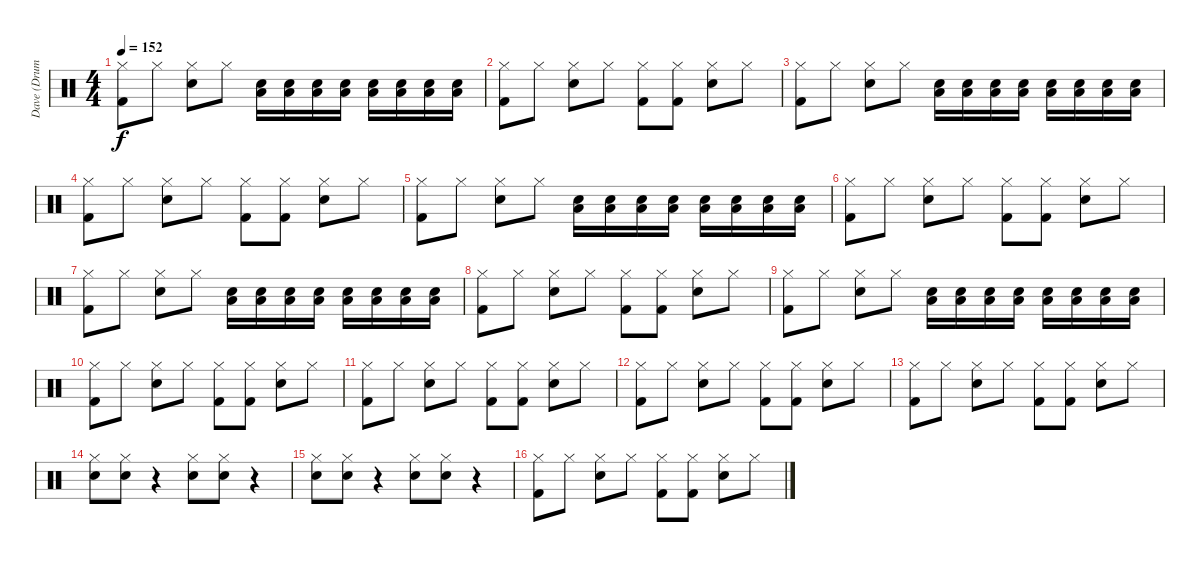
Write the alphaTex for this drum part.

\track ("Dave (Drums)" "Dave (Drum") {instrument percussion}
\staff {score}
\articulation defaults
\ts (4 4)
\tempo 152
\clef neutral
\ks c
("Hi-Hat (closed)" "Kick (hit) 2").8{dy f} "Hi-Hat (closed)".8 ("Hi-Hat (closed)" "Snare (hit) 2").8 "Hi-Hat (closed)".8 ("Low Tom (hit)" "Snare (hit) 2").16 ("Low Tom (hit)" "Snare (hit) 2").16 ("Low Tom (hit)" "Snare (hit) 2").16 ("Low Tom (hit)" "Snare (hit) 2").16 ("Low Tom (hit)" "Snare (hit) 2").16 ("Low Tom (hit)" "Snare (hit) 2").16 ("Low Tom (hit)" "Snare (hit) 2").16 ("Low Tom (hit)" "Snare (hit) 2").16 |
("Hi-Hat (closed)" "Kick (hit) 2").8 "Hi-Hat (closed)".8 ("Hi-Hat (closed)" "Snare (hit) 2").8 "Hi-Hat (closed)".8 ("Hi-Hat (closed)" "Kick (hit) 2").8 ("Hi-Hat (closed)" "Kick (hit) 2").8 ("Hi-Hat (closed)" "Snare (hit) 2").8 "Hi-Hat (closed)".8 |
("Hi-Hat (closed)" "Kick (hit) 2").8 "Hi-Hat (closed)".8 ("Hi-Hat (closed)" "Snare (hit) 2").8 "Hi-Hat (closed)".8 ("Low Tom (hit)" "Snare (hit) 2").16 ("Low Tom (hit)" "Snare (hit) 2").16 ("Low Tom (hit)" "Snare (hit) 2").16 ("Low Tom (hit)" "Snare (hit) 2").16 ("Low Tom (hit)" "Snare (hit) 2").16 ("Low Tom (hit)" "Snare (hit) 2").16 ("Low Tom (hit)" "Snare (hit) 2").16 ("Low Tom (hit)" "Snare (hit) 2").16 |
("Hi-Hat (closed)" "Kick (hit) 2").8 "Hi-Hat (closed)".8 ("Hi-Hat (closed)" "Snare (hit) 2").8 "Hi-Hat (closed)".8 ("Hi-Hat (closed)" "Kick (hit) 2").8 ("Hi-Hat (closed)" "Kick (hit) 2").8 ("Hi-Hat (closed)" "Snare (hit) 2").8 "Hi-Hat (closed)".8 |
("Hi-Hat (closed)" "Kick (hit) 2").8 "Hi-Hat (closed)".8 ("Hi-Hat (closed)" "Snare (hit) 2").8 "Hi-Hat (closed)".8 ("Low Tom (hit)" "Snare (hit) 2").16 ("Low Tom (hit)" "Snare (hit) 2").16 ("Low Tom (hit)" "Snare (hit) 2").16 ("Low Tom (hit)" "Snare (hit) 2").16 ("Low Tom (hit)" "Snare (hit) 2").16 ("Low Tom (hit)" "Snare (hit) 2").16 ("Low Tom (hit)" "Snare (hit) 2").16 ("Low Tom (hit)" "Snare (hit) 2").16 |
("Hi-Hat (closed)" "Kick (hit) 2").8 "Hi-Hat (closed)".8 ("Hi-Hat (closed)" "Snare (hit) 2").8 "Hi-Hat (closed)".8 ("Hi-Hat (closed)" "Kick (hit) 2").8 ("Hi-Hat (closed)" "Kick (hit) 2").8 ("Hi-Hat (closed)" "Snare (hit) 2").8 "Hi-Hat (closed)".8 |
("Hi-Hat (closed)" "Kick (hit) 2").8 "Hi-Hat (closed)".8 ("Hi-Hat (closed)" "Snare (hit) 2").8 "Hi-Hat (closed)".8 ("Low Tom (hit)" "Snare (hit) 2").16 ("Low Tom (hit)" "Snare (hit) 2").16 ("Low Tom (hit)" "Snare (hit) 2").16 ("Low Tom (hit)" "Snare (hit) 2").16 ("Low Tom (hit)" "Snare (hit) 2").16 ("Low Tom (hit)" "Snare (hit) 2").16 ("Low Tom (hit)" "Snare (hit) 2").16 ("Low Tom (hit)" "Snare (hit) 2").16 |
("Hi-Hat (closed)" "Kick (hit) 2").8 "Hi-Hat (closed)".8 ("Hi-Hat (closed)" "Snare (hit) 2").8 "Hi-Hat (closed)".8 ("Hi-Hat (closed)" "Kick (hit) 2").8 ("Hi-Hat (closed)" "Kick (hit) 2").8 ("Hi-Hat (closed)" "Snare (hit) 2").8 "Hi-Hat (closed)".8 |
("Hi-Hat (closed)" "Kick (hit) 2").8 "Hi-Hat (closed)".8 ("Hi-Hat (closed)" "Snare (hit) 2").8 "Hi-Hat (closed)".8 ("Low Tom (hit)" "Snare (hit) 2").16 ("Low Tom (hit)" "Snare (hit) 2").16 ("Low Tom (hit)" "Snare (hit) 2").16 ("Low Tom (hit)" "Snare (hit) 2").16 ("Low Tom (hit)" "Snare (hit) 2").16 ("Low Tom (hit)" "Snare (hit) 2").16 ("Low Tom (hit)" "Snare (hit) 2").16 ("Low Tom (hit)" "Snare (hit) 2").16 |
("Hi-Hat (closed)" "Kick (hit) 2").8 "Hi-Hat (closed)".8 ("Hi-Hat (closed)" "Snare (hit) 2").8 "Hi-Hat (closed)".8 ("Hi-Hat (closed)" "Kick (hit) 2").8 ("Hi-Hat (closed)" "Kick (hit) 2").8 ("Hi-Hat (closed)" "Snare (hit) 2").8 "Hi-Hat (closed)".8 |
("Hi-Hat (closed)" "Kick (hit) 2").8 "Hi-Hat (closed)".8 ("Hi-Hat (closed)" "Snare (hit) 2").8 "Hi-Hat (closed)".8 ("Hi-Hat (closed)" "Kick (hit) 2").8 ("Hi-Hat (closed)" "Kick (hit) 2").8 ("Hi-Hat (closed)" "Snare (hit) 2").8 "Hi-Hat (closed)".8 |
("Hi-Hat (closed)" "Kick (hit) 2").8 "Hi-Hat (closed)".8 ("Hi-Hat (closed)" "Snare (hit) 2").8 "Hi-Hat (closed)".8 ("Hi-Hat (closed)" "Kick (hit) 2").8 ("Hi-Hat (closed)" "Kick (hit) 2").8 ("Hi-Hat (closed)" "Snare (hit) 2").8 "Hi-Hat (closed)".8 |
("Hi-Hat (closed)" "Kick (hit) 2").8 "Hi-Hat (closed)".8 ("Hi-Hat (closed)" "Snare (hit) 2").8 "Hi-Hat (closed)".8 ("Hi-Hat (closed)" "Kick (hit) 2").8 ("Hi-Hat (closed)" "Kick (hit) 2").8 ("Hi-Hat (closed)" "Snare (hit) 2").8 "Hi-Hat (closed)".8 |
("Hi-Hat (closed)" "Snare (hit) 2").8 ("Hi-Hat (closed)" "Snare (hit) 2").8 r.4 ("Hi-Hat (closed)" "Snare (hit) 2").8 ("Hi-Hat (closed)" "Snare (hit) 2").8 r.4 |
("Hi-Hat (closed)" "Snare (hit) 2").8 ("Hi-Hat (closed)" "Snare (hit) 2").8 r.4 ("Hi-Hat (closed)" "Snare (hit) 2").8 ("Hi-Hat (closed)" "Snare (hit) 2").8 r.4 |
("Hi-Hat (closed)" "Kick (hit) 2").8 "Hi-Hat (closed)".8 ("Hi-Hat (closed)" "Snare (hit) 2").8 "Hi-Hat (closed)".8 ("Hi-Hat (closed)" "Kick (hit) 2").8 ("Hi-Hat (closed)" "Kick (hit) 2").8 ("Hi-Hat (closed)" "Snare (hit) 2").8 "Hi-Hat (closed)".8
